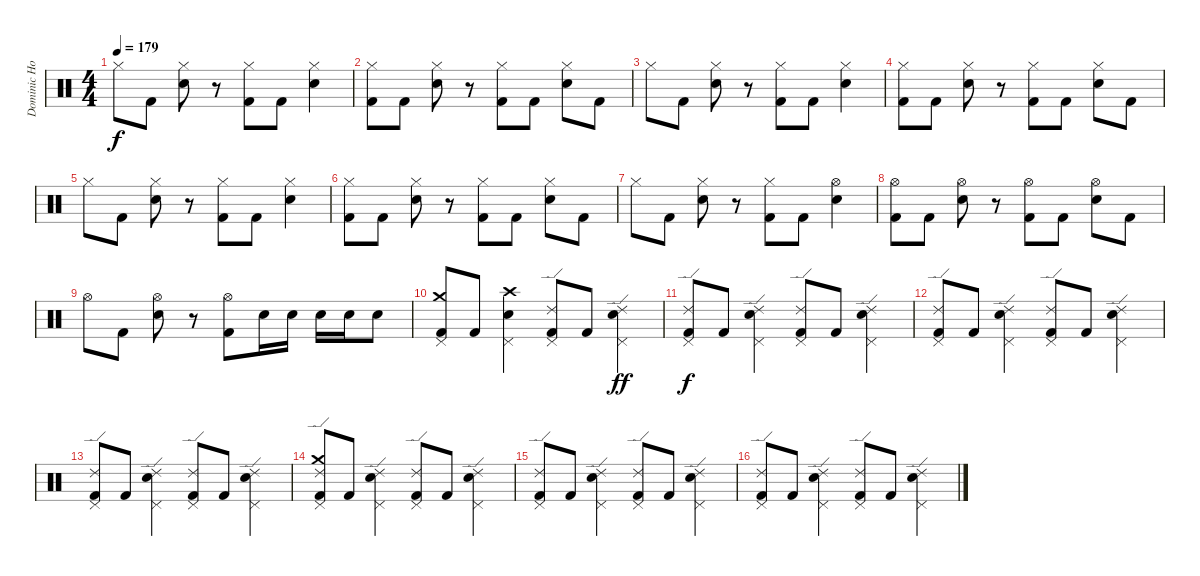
\track ("Dominic Howard" "Dominic Ho") {instrument percussion}
\staff {score}
\articulation defaults
\ts (4 4)
\tempo 179
\clef neutral
\ks c "Hi-Hat (closed)".8{dy f} "Kick (hit) 2".8
("Hi-Hat (closed)" "Electric Snare (hit)").8 r.8 ("Hi-Hat (closed)" "Kick (hit) 2").8 "Kick (hit) 2".8 ("Hi-Hat (closed)" "Electric Snare (hit)").4 |
("Hi-Hat (closed)" "Kick (hit) 2").8 "Kick (hit) 2".8 ("Hi-Hat (closed)" "Electric Snare (hit)").8 r.8 ("Hi-Hat (closed)" "Kick (hit) 2").8 "Kick (hit) 2".8 ("Hi-Hat (closed)" "Electric Snare (hit)").8 "Kick (hit) 2".8 |
"Hi-Hat (closed)".8 "Kick (hit) 2".8 ("Hi-Hat (closed)" "Electric Snare (hit)").8 r.8 ("Hi-Hat (closed)" "Kick (hit) 2").8 "Kick (hit) 2".8 ("Hi-Hat (closed)" "Electric Snare (hit)").4 |
("Hi-Hat (closed)" "Kick (hit) 2").8 "Kick (hit) 2".8 ("Hi-Hat (closed)" "Electric Snare (hit)").8 r.8 ("Hi-Hat (closed)" "Kick (hit) 2").8 "Kick (hit) 2".8 ("Hi-Hat (closed)" "Electric Snare (hit)").8 "Kick (hit) 2".8 |
"Hi-Hat (closed)".8 "Kick (hit) 2".8 ("Hi-Hat (closed)" "Electric Snare (hit)").8 r.8 ("Hi-Hat (closed)" "Kick (hit) 2").8 "Kick (hit) 2".8 ("Hi-Hat (closed)" "Electric Snare (hit)").4 |
("Hi-Hat (closed)" "Kick (hit) 2").8 "Kick (hit) 2".8 ("Hi-Hat (closed)" "Electric Snare (hit)").8 r.8 ("Hi-Hat (closed)" "Kick (hit) 2").8 "Kick (hit) 2".8 ("Hi-Hat (closed)" "Electric Snare (hit)").8 "Kick (hit) 2".8 |
"Hi-Hat (closed)".8 "Kick (hit) 2".8 ("Hi-Hat (closed)" "Electric Snare (hit)").8 r.8 ("Hi-Hat (closed)" "Kick (hit) 2").8 "Kick (hit) 2".8 ("Hi-Hat (open)" "Electric Snare (hit)").4 |
("Hi-Hat (open)" "Kick (hit) 2").8 "Kick (hit) 2".8 ("Hi-Hat (open)" "Electric Snare (hit)").8 r.8 ("Hi-Hat (open)" "Kick (hit) 2").8 "Kick (hit) 2".8 ("Hi-Hat (open)" "Electric Snare (hit)").8 "Kick (hit) 2".8 |
"Hi-Hat (open)".8 "Kick (hit) 2".8 ("Hi-Hat (open)" "Electric Snare (hit)").8 r.8 ("Hi-Hat (open)" "Kick (hit) 2").8 "Electric Snare (hit)".16 "Electric Snare (hit)".16 "Electric Snare (hit)".16 "Electric Snare (hit)".16 "Electric Snare (hit)".8 |
("Crash medium (hit)" "Pedal Hi-Hat (hit)" "Kick (hit) 2").8 "Kick (hit) 2".8 ("Crash high (hit)" "Electric Snare (hit)" "Pedal Hi-Hat (hit)").4 ("Ride (edge) 2" "Pedal Hi-Hat (hit)" "Kick (hit) 2").8 "Kick (hit) 2".8 ("Ride (edge) 2" "Electric Snare (hit)" "Pedal Hi-Hat (hit)").4{dy ff} |
("Ride (edge) 2" "Pedal Hi-Hat (hit)" "Kick (hit) 2").8{dy f} "Kick (hit) 2".8 ("Ride (edge) 2" "Electric Snare (hit)" "Pedal Hi-Hat (hit)").4 ("Ride (edge) 2" "Pedal Hi-Hat (hit)" "Kick (hit) 2").8 "Kick (hit) 2".8 ("Ride (edge) 2" "Electric Snare (hit)" "Pedal Hi-Hat (hit)").4 |
("Ride (edge) 2" "Pedal Hi-Hat (hit)" "Kick (hit) 2").8 "Kick (hit) 2".8 ("Ride (edge) 2" "Electric Snare (hit)" "Pedal Hi-Hat (hit)").4 ("Ride (edge) 2" "Pedal Hi-Hat (hit)" "Kick (hit) 2").8 "Kick (hit) 2".8 ("Ride (edge) 2" "Electric Snare (hit)" "Pedal Hi-Hat (hit)").4 |
("Ride (edge) 2" "Pedal Hi-Hat (hit)" "Kick (hit) 2").8 "Kick (hit) 2".8 ("Ride (edge) 2" "Electric Snare (hit)" "Pedal Hi-Hat (hit)").4 ("Ride (edge) 2" "Pedal Hi-Hat (hit)" "Kick (hit) 2").8 "Kick (hit) 2".8 ("Ride (edge) 2" "Electric Snare (hit)" "Pedal Hi-Hat (hit)").4 |
("Crash medium (hit)" "Ride (edge) 2" "Pedal Hi-Hat (hit)" "Kick (hit) 2").8 "Kick (hit) 2".8 ("Ride (edge) 2" "Electric Snare (hit)" "Pedal Hi-Hat (hit)").4 ("Ride (edge) 2" "Pedal Hi-Hat (hit)" "Kick (hit) 2").8 "Kick (hit) 2".8 ("Ride (edge) 2" "Electric Snare (hit)" "Pedal Hi-Hat (hit)").4 |
("Ride (edge) 2" "Pedal Hi-Hat (hit)" "Kick (hit) 2").8 "Kick (hit) 2".8 ("Ride (edge) 2" "Electric Snare (hit)" "Pedal Hi-Hat (hit)").4 ("Ride (edge) 2" "Pedal Hi-Hat (hit)" "Kick (hit) 2").8 "Kick (hit) 2".8 ("Ride (edge) 2" "Electric Snare (hit)" "Pedal Hi-Hat (hit)").4 |
("Ride (edge) 2" "Pedal Hi-Hat (hit)" "Kick (hit) 2").8 "Kick (hit) 2".8 ("Ride (edge) 2" "Electric Snare (hit)" "Pedal Hi-Hat (hit)").4 ("Ride (edge) 2" "Pedal Hi-Hat (hit)" "Kick (hit) 2").8 "Kick (hit) 2".8 ("Ride (edge) 2" "Electric Snare (hit)" "Pedal Hi-Hat (hit)").4
